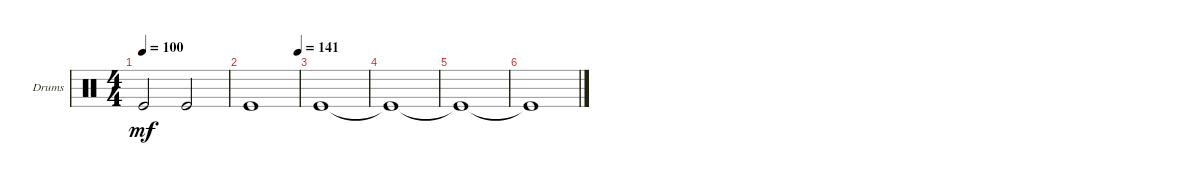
\defaultSystemsLayout 4
\bracketExtendMode groupsimilarinstruments
\firstSystemTrackNameOrientation horizontal
\otherSystemsTrackNameOrientation horizontal
\track ("Drumkit" "Drums") {instrument percussion}
\staff {score}
\articulation defaults
\ts (4 4)
\tempo 100
\clef neutral
\ks c "Kick (hit)".2{dy mf} "Kick (hit)".2
|
\tempo (141 0.99375)
"Kick (hit)".1 |
"Kick (hit)".1 |
"Kick (hit)"{t}.1 |
"Kick (hit)"{t}.1 |
"Kick (hit)"{t}.1
